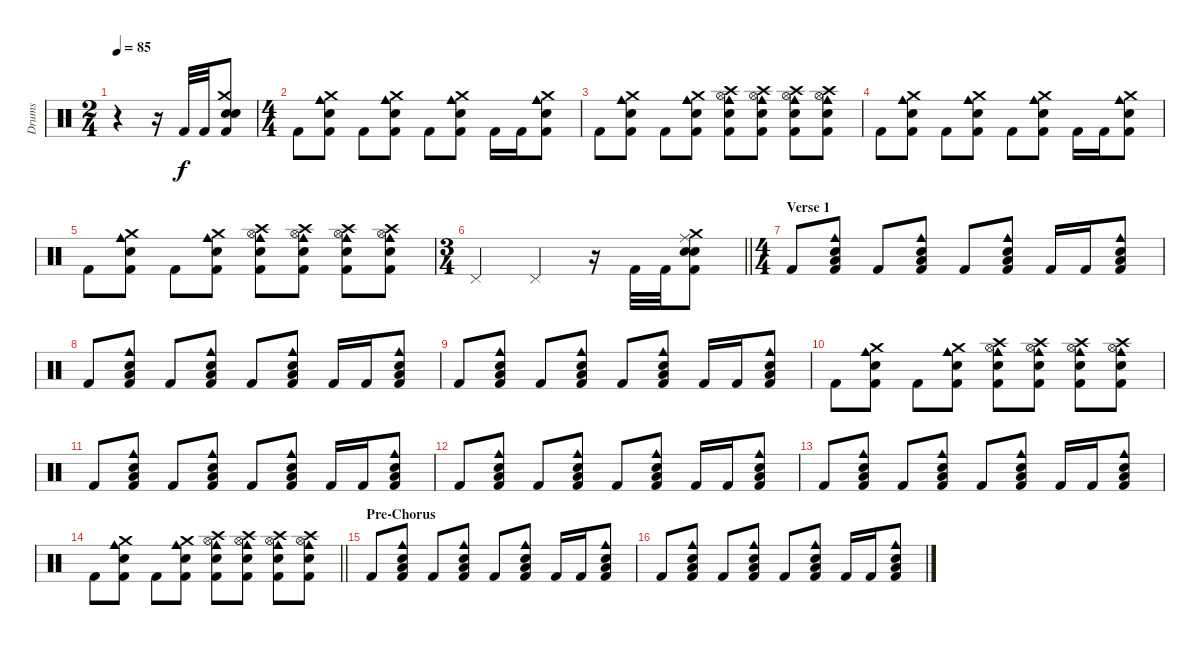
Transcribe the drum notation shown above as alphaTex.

\track ("Drums" "Drums") {instrument percussion}
\staff {score}
\articulation defaults
\ts (2 4)
\tempo 85
\clef neutral
\ks c
r.4{dy f} r.16 "Kick (hit) 2".32 "Kick (hit) 2".32 ("Crash medium (hit)" "Electric Snare (hit)" "Snare (hit) 2" "Kick (hit) 2").8 |
\ts (4 4)
"Kick (hit) 2".8 ("Cowbell medium (hit)" "Crash medium (hit)" "Electric Snare (hit)" "Kick (hit) 2").8 "Kick (hit) 2".8 ("Cowbell medium (hit)" "Crash medium (hit)" "Electric Snare (hit)" "Kick (hit) 2").8 "Kick (hit) 2".8 ("Cowbell medium (hit)" "Crash medium (hit)" "Electric Snare (hit)" "Kick (hit) 2").8 "Kick (hit) 2".16 "Kick (hit) 2".16 ("Cowbell medium (hit)" "Crash medium (hit)" "Electric Snare (hit)" "Kick (hit) 2").8 |
"Kick (hit) 2".8 ("Cowbell medium (hit)" "Crash medium (hit)" "Electric Snare (hit)" "Kick (hit) 2").8 "Kick (hit) 2".8 ("Cowbell medium (hit)" "Crash medium (hit)" "Electric Snare (hit)" "Kick (hit) 2").8 ("Cowbell medium (hit)" "Crash high (hit)" "Hi-Hat (open)" "Electric Snare (hit)" "Kick (hit) 2").8 ("Cowbell medium (hit)" "Crash high (hit)" "Hi-Hat (open)" "Electric Snare (hit)" "Kick (hit) 2").8 ("Cowbell medium (hit)" "Crash high (hit)" "Hi-Hat (open)" "Electric Snare (hit)" "Kick (hit) 2").8 ("Cowbell medium (hit)" "Crash high (hit)" "Hi-Hat (open)" "Electric Snare (hit)" "Kick (hit) 2").8 |
"Kick (hit) 2".8 ("Cowbell medium (hit)" "Crash medium (hit)" "Electric Snare (hit)" "Kick (hit) 2").8 "Kick (hit) 2".8 ("Cowbell medium (hit)" "Crash medium (hit)" "Electric Snare (hit)" "Kick (hit) 2").8 "Kick (hit) 2".8 ("Cowbell medium (hit)" "Crash medium (hit)" "Electric Snare (hit)" "Kick (hit) 2").8 "Kick (hit) 2".16 "Kick (hit) 2".16 ("Cowbell medium (hit)" "Crash medium (hit)" "Electric Snare (hit)" "Kick (hit) 2").8 |
"Kick (hit) 2".8 ("Cowbell medium (hit)" "Crash medium (hit)" "Electric Snare (hit)" "Kick (hit) 2").8 "Kick (hit) 2".8 ("Cowbell medium (hit)" "Crash medium (hit)" "Electric Snare (hit)" "Kick (hit) 2").8 ("Cowbell medium (hit)" "Crash high (hit)" "Hi-Hat (open)" "Electric Snare (hit)" "Kick (hit) 2").8 ("Cowbell medium (hit)" "Crash high (hit)" "Hi-Hat (open)" "Electric Snare (hit)" "Kick (hit) 2").8 ("Cowbell medium (hit)" "Crash high (hit)" "Hi-Hat (open)" "Electric Snare (hit)" "Kick (hit) 2").8 ("Cowbell medium (hit)" "Crash high (hit)" "Hi-Hat (open)" "Electric Snare (hit)" "Kick (hit) 2").8 |
\ts (3 4)
\barLineRight lightlight "Pedal Hi-Hat (hit)".4 "Pedal Hi-Hat (hit)".4
r.16 "Kick (hit) 2".32 "Kick (hit) 2".32 ("Crash medium (hit)" "Electric Snare (hit)" "Ride (middle)" "Snare (hit) 2" "Kick (hit) 2").8 |
\ts (4 4)
\section ("" "Verse 1")
"Kick (hit) 2".8 ("Cowbell medium (hit)" "Electric Snare (hit)" "Low Tom (hit)" "Kick (hit) 2").8 "Kick (hit) 2".8 ("Cowbell medium (hit)" "Electric Snare (hit)" "Low Tom (hit)" "Kick (hit) 2").8 "Kick (hit) 2".8 ("Cowbell medium (hit)" "Electric Snare (hit)" "Low Tom (hit)" "Kick (hit) 2").8 "Kick (hit) 2".16 "Kick (hit) 2".16 ("Cowbell medium (hit)" "Electric Snare (hit)" "Low Tom (hit)" "Kick (hit) 2").8 |
"Kick (hit) 2".8 ("Cowbell medium (hit)" "Electric Snare (hit)" "Low Tom (hit)" "Kick (hit) 2").8 "Kick (hit) 2".8 ("Cowbell medium (hit)" "Electric Snare (hit)" "Low Tom (hit)" "Kick (hit) 2").8 "Kick (hit) 2".8 ("Cowbell medium (hit)" "Electric Snare (hit)" "Low Tom (hit)" "Kick (hit) 2").8 "Kick (hit) 2".16 "Kick (hit) 2".16 ("Cowbell medium (hit)" "Electric Snare (hit)" "Low Tom (hit)" "Kick (hit) 2").8 |
"Kick (hit) 2".8 ("Cowbell medium (hit)" "Electric Snare (hit)" "Low Tom (hit)" "Kick (hit) 2").8 "Kick (hit) 2".8 ("Cowbell medium (hit)" "Electric Snare (hit)" "Low Tom (hit)" "Kick (hit) 2").8 "Kick (hit) 2".8 ("Cowbell medium (hit)" "Electric Snare (hit)" "Low Tom (hit)" "Kick (hit) 2").8 "Kick (hit) 2".16 "Kick (hit) 2".16 ("Cowbell medium (hit)" "Electric Snare (hit)" "Low Tom (hit)" "Kick (hit) 2").8 |
"Kick (hit) 2".8 ("Cowbell medium (hit)" "Crash medium (hit)" "Electric Snare (hit)" "Kick (hit) 2").8 "Kick (hit) 2".8 ("Cowbell medium (hit)" "Crash medium (hit)" "Electric Snare (hit)" "Kick (hit) 2").8 ("Cowbell medium (hit)" "Crash high (hit)" "Hi-Hat (open)" "Electric Snare (hit)" "Kick (hit) 2").8 ("Cowbell medium (hit)" "Crash high (hit)" "Hi-Hat (open)" "Electric Snare (hit)" "Kick (hit) 2").8 ("Cowbell medium (hit)" "Crash high (hit)" "Hi-Hat (open)" "Electric Snare (hit)" "Kick (hit) 2").8 ("Cowbell medium (hit)" "Crash high (hit)" "Hi-Hat (open)" "Electric Snare (hit)" "Kick (hit) 2").8 |
"Kick (hit) 2".8 ("Cowbell medium (hit)" "Electric Snare (hit)" "Low Tom (hit)" "Kick (hit) 2").8 "Kick (hit) 2".8 ("Cowbell medium (hit)" "Electric Snare (hit)" "Low Tom (hit)" "Kick (hit) 2").8 "Kick (hit) 2".8 ("Cowbell medium (hit)" "Electric Snare (hit)" "Low Tom (hit)" "Kick (hit) 2").8 "Kick (hit) 2".16 "Kick (hit) 2".16 ("Cowbell medium (hit)" "Electric Snare (hit)" "Low Tom (hit)" "Kick (hit) 2").8 |
"Kick (hit) 2".8 ("Cowbell medium (hit)" "Electric Snare (hit)" "Low Tom (hit)" "Kick (hit) 2").8 "Kick (hit) 2".8 ("Cowbell medium (hit)" "Electric Snare (hit)" "Low Tom (hit)" "Kick (hit) 2").8 "Kick (hit) 2".8 ("Cowbell medium (hit)" "Electric Snare (hit)" "Low Tom (hit)" "Kick (hit) 2").8 "Kick (hit) 2".16 "Kick (hit) 2".16 ("Cowbell medium (hit)" "Electric Snare (hit)" "Low Tom (hit)" "Kick (hit) 2").8 |
"Kick (hit) 2".8 ("Cowbell medium (hit)" "Electric Snare (hit)" "Low Tom (hit)" "Kick (hit) 2").8 "Kick (hit) 2".8 ("Cowbell medium (hit)" "Electric Snare (hit)" "Low Tom (hit)" "Kick (hit) 2").8 "Kick (hit) 2".8 ("Cowbell medium (hit)" "Electric Snare (hit)" "Low Tom (hit)" "Kick (hit) 2").8 "Kick (hit) 2".16 "Kick (hit) 2".16 ("Cowbell medium (hit)" "Electric Snare (hit)" "Low Tom (hit)" "Kick (hit) 2").8 |
\barLineRight lightlight "Kick (hit) 2".8
("Cowbell medium (hit)" "Crash medium (hit)" "Electric Snare (hit)" "Kick (hit) 2").8 "Kick (hit) 2".8 ("Cowbell medium (hit)" "Crash medium (hit)" "Electric Snare (hit)" "Kick (hit) 2").8 ("Cowbell medium (hit)" "Crash high (hit)" "Hi-Hat (open)" "Electric Snare (hit)" "Kick (hit) 2").8 ("Cowbell medium (hit)" "Crash high (hit)" "Hi-Hat (open)" "Electric Snare (hit)" "Kick (hit) 2").8 ("Cowbell medium (hit)" "Crash high (hit)" "Hi-Hat (open)" "Electric Snare (hit)" "Kick (hit) 2").8 ("Cowbell medium (hit)" "Crash high (hit)" "Hi-Hat (open)" "Electric Snare (hit)" "Kick (hit) 2").8 |
\section ("" "Pre-Chorus")
"Kick (hit) 2".8 ("Cowbell medium (hit)" "Electric Snare (hit)" "Low Tom (hit)" "Kick (hit) 2").8 "Kick (hit) 2".8 ("Cowbell medium (hit)" "Electric Snare (hit)" "Low Tom (hit)" "Kick (hit) 2").8 "Kick (hit) 2".8 ("Cowbell medium (hit)" "Electric Snare (hit)" "Low Tom (hit)" "Kick (hit) 2").8 "Kick (hit) 2".16 "Kick (hit) 2".16 ("Cowbell medium (hit)" "Electric Snare (hit)" "Low Tom (hit)" "Kick (hit) 2").8 |
"Kick (hit) 2".8 ("Cowbell medium (hit)" "Electric Snare (hit)" "Low Tom (hit)" "Kick (hit) 2").8 "Kick (hit) 2".8 ("Cowbell medium (hit)" "Electric Snare (hit)" "Low Tom (hit)" "Kick (hit) 2").8 "Kick (hit) 2".8 ("Cowbell medium (hit)" "Electric Snare (hit)" "Low Tom (hit)" "Kick (hit) 2").8 "Kick (hit) 2".16 "Kick (hit) 2".16 ("Cowbell medium (hit)" "Electric Snare (hit)" "Low Tom (hit)" "Kick (hit) 2").8
